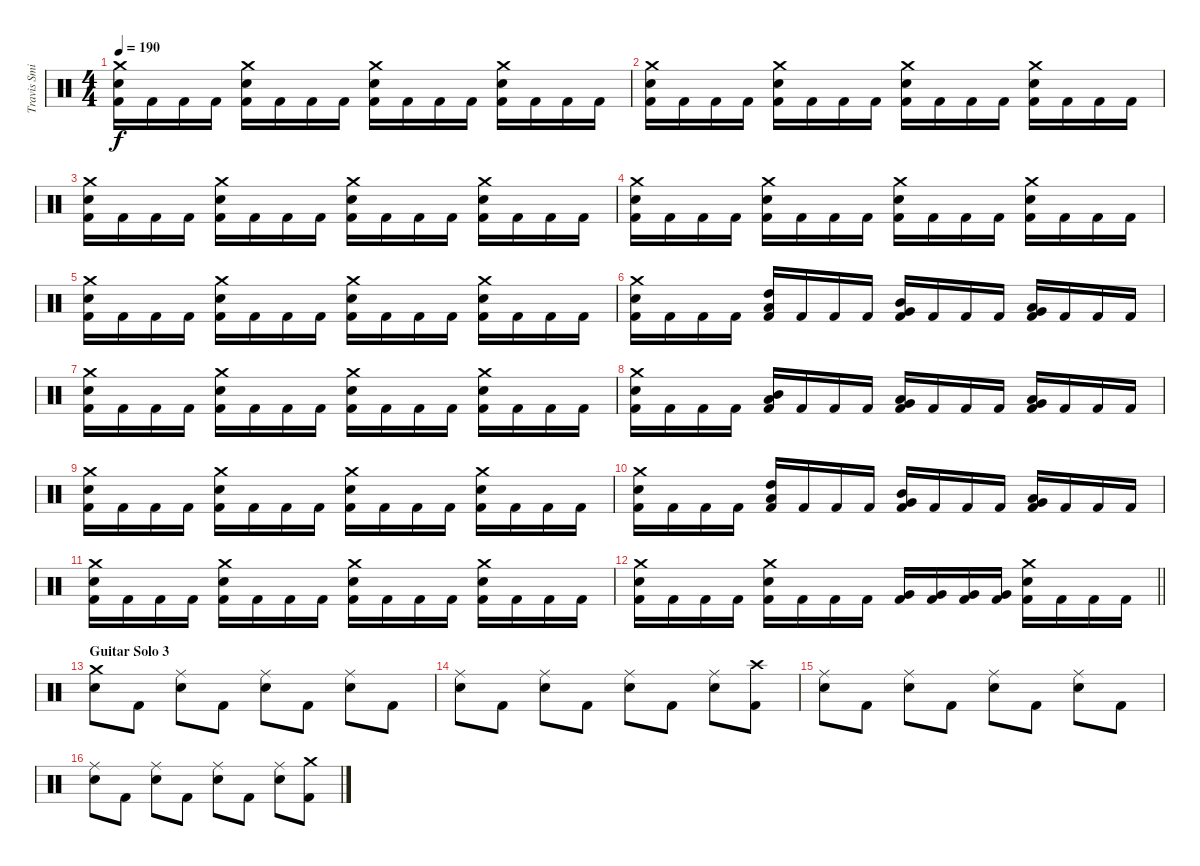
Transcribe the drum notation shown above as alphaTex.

\track ("Travis Smith" "Travis Smi") {instrument percussion}
\staff {score}
\articulation defaults
\ts (4 4)
\tempo 190
\clef neutral
\ks c
("Crash medium (hit)" "Electric Snare (hit)" "Kick (hit) 2").16{dy f} "Kick (hit) 2".16 "Kick (hit) 2".16 "Kick (hit) 2".16 ("Crash medium (hit)" "Electric Snare (hit)" "Kick (hit) 2").16 "Kick (hit) 2".16 "Kick (hit) 2".16 "Kick (hit) 2".16 ("Crash medium (hit)" "Electric Snare (hit)" "Kick (hit) 2").16 "Kick (hit) 2".16 "Kick (hit) 2".16 "Kick (hit) 2".16 ("Crash medium (hit)" "Electric Snare (hit)" "Kick (hit) 2").16 "Kick (hit) 2".16 "Kick (hit) 2".16 "Kick (hit) 2".16 |
("Crash medium (hit)" "Electric Snare (hit)" "Kick (hit) 2").16 "Kick (hit) 2".16 "Kick (hit) 2".16 "Kick (hit) 2".16 ("Crash medium (hit)" "Electric Snare (hit)" "Kick (hit) 2").16 "Kick (hit) 2".16 "Kick (hit) 2".16 "Kick (hit) 2".16 ("Crash medium (hit)" "Electric Snare (hit)" "Kick (hit) 2").16 "Kick (hit) 2".16 "Kick (hit) 2".16 "Kick (hit) 2".16 ("Crash medium (hit)" "Electric Snare (hit)" "Kick (hit) 2").16 "Kick (hit) 2".16 "Kick (hit) 2".16 "Kick (hit) 2".16 |
("Crash medium (hit)" "Electric Snare (hit)" "Kick (hit) 2").16 "Kick (hit) 2".16 "Kick (hit) 2".16 "Kick (hit) 2".16 ("Crash medium (hit)" "Electric Snare (hit)" "Kick (hit) 2").16 "Kick (hit) 2".16 "Kick (hit) 2".16 "Kick (hit) 2".16 ("Crash medium (hit)" "Electric Snare (hit)" "Kick (hit) 2").16 "Kick (hit) 2".16 "Kick (hit) 2".16 "Kick (hit) 2".16 ("Crash medium (hit)" "Electric Snare (hit)" "Kick (hit) 2").16 "Kick (hit) 2".16 "Kick (hit) 2".16 "Kick (hit) 2".16 |
("Crash medium (hit)" "Electric Snare (hit)" "Kick (hit) 2").16 "Kick (hit) 2".16 "Kick (hit) 2".16 "Kick (hit) 2".16 ("Crash medium (hit)" "Electric Snare (hit)" "Kick (hit) 2").16 "Kick (hit) 2".16 "Kick (hit) 2".16 "Kick (hit) 2".16 ("Crash medium (hit)" "Electric Snare (hit)" "Kick (hit) 2").16 "Kick (hit) 2".16 "Kick (hit) 2".16 "Kick (hit) 2".16 ("Crash medium (hit)" "Electric Snare (hit)" "Kick (hit) 2").16 "Kick (hit) 2".16 "Kick (hit) 2".16 "Kick (hit) 2".16 |
("Crash medium (hit)" "Electric Snare (hit)" "Kick (hit) 2").16 "Kick (hit) 2".16 "Kick (hit) 2".16 "Kick (hit) 2".16 ("Crash medium (hit)" "Electric Snare (hit)" "Kick (hit) 2").16 "Kick (hit) 2".16 "Kick (hit) 2".16 "Kick (hit) 2".16 ("Crash medium (hit)" "Electric Snare (hit)" "Kick (hit) 2").16 "Kick (hit) 2".16 "Kick (hit) 2".16 "Kick (hit) 2".16 ("Crash medium (hit)" "Electric Snare (hit)" "Kick (hit) 2").16 "Kick (hit) 2".16 "Kick (hit) 2".16 "Kick (hit) 2".16 |
("Crash medium (hit)" "Electric Snare (hit)" "Kick (hit) 2").16 "Kick (hit) 2".16 "Kick (hit) 2".16 "Kick (hit) 2".16 ("Low Tom (hit)" "High Tom (hit)" "Kick (hit) 2").16 "Kick (hit) 2".16 "Kick (hit) 2".16 "Kick (hit) 2".16 ("Very Low Tom (hit)" "Mid Tom (hit)" "Kick (hit) 2").16 "Kick (hit) 2".16 "Kick (hit) 2".16 "Kick (hit) 2".16 ("Very Low Tom (hit)" "Low Tom (hit)" "Kick (hit) 2").16 "Kick (hit) 2".16 "Kick (hit) 2".16 "Kick (hit) 2".16 |
("Crash medium (hit)" "Electric Snare (hit)" "Kick (hit) 2").16 "Kick (hit) 2".16 "Kick (hit) 2".16 "Kick (hit) 2".16 ("Crash medium (hit)" "Electric Snare (hit)" "Kick (hit) 2").16 "Kick (hit) 2".16 "Kick (hit) 2".16 "Kick (hit) 2".16 ("Crash medium (hit)" "Electric Snare (hit)" "Kick (hit) 2").16 "Kick (hit) 2".16 "Kick (hit) 2".16 "Kick (hit) 2".16 ("Crash medium (hit)" "Electric Snare (hit)" "Kick (hit) 2").16 "Kick (hit) 2".16 "Kick (hit) 2".16 "Kick (hit) 2".16 |
("Crash medium (hit)" "Electric Snare (hit)" "Kick (hit) 2").16 "Kick (hit) 2".16 "Kick (hit) 2".16 "Kick (hit) 2".16 ("Low Tom (hit)" "Mid Tom (hit)" "Kick (hit) 2").16 "Kick (hit) 2".16 "Kick (hit) 2".16 "Kick (hit) 2".16 ("Very Low Tom (hit)" "Low Tom (hit)" "Kick (hit) 2").16 "Kick (hit) 2".16 "Kick (hit) 2".16 "Kick (hit) 2".16 ("Very Low Tom (hit)" "Low Floor Tom (hit)" "Kick (hit) 2").16 "Kick (hit) 2".16 "Kick (hit) 2".16 "Kick (hit) 2".16 |
("Crash medium (hit)" "Electric Snare (hit)" "Kick (hit) 2").16 "Kick (hit) 2".16 "Kick (hit) 2".16 "Kick (hit) 2".16 ("Crash medium (hit)" "Electric Snare (hit)" "Kick (hit) 2").16 "Kick (hit) 2".16 "Kick (hit) 2".16 "Kick (hit) 2".16 ("Crash medium (hit)" "Electric Snare (hit)" "Kick (hit) 2").16 "Kick (hit) 2".16 "Kick (hit) 2".16 "Kick (hit) 2".16 ("Crash medium (hit)" "Electric Snare (hit)" "Kick (hit) 2").16 "Kick (hit) 2".16 "Kick (hit) 2".16 "Kick (hit) 2".16 |
("Crash medium (hit)" "Electric Snare (hit)" "Kick (hit) 2").16 "Kick (hit) 2".16 "Kick (hit) 2".16 "Kick (hit) 2".16 ("Low Tom (hit)" "High Tom (hit)" "Kick (hit) 2").16 "Kick (hit) 2".16 "Kick (hit) 2".16 "Kick (hit) 2".16 ("Very Low Tom (hit)" "Mid Tom (hit)" "Kick (hit) 2").16 "Kick (hit) 2".16 "Kick (hit) 2".16 "Kick (hit) 2".16 ("Very Low Tom (hit)" "Low Tom (hit)" "Kick (hit) 2").16 "Kick (hit) 2".16 "Kick (hit) 2".16 "Kick (hit) 2".16 |
("Crash medium (hit)" "Electric Snare (hit)" "Kick (hit) 2").16 "Kick (hit) 2".16 "Kick (hit) 2".16 "Kick (hit) 2".16 ("Crash medium (hit)" "Electric Snare (hit)" "Kick (hit) 2").16 "Kick (hit) 2".16 "Kick (hit) 2".16 "Kick (hit) 2".16 ("Crash medium (hit)" "Electric Snare (hit)" "Kick (hit) 2").16 "Kick (hit) 2".16 "Kick (hit) 2".16 "Kick (hit) 2".16 ("Crash medium (hit)" "Electric Snare (hit)" "Kick (hit) 2").16 "Kick (hit) 2".16 "Kick (hit) 2".16 "Kick (hit) 2".16 |
\barLineRight lightlight
("Crash medium (hit)" "Electric Snare (hit)" "Kick (hit) 2").16 "Kick (hit) 2".16 "Kick (hit) 2".16 "Kick (hit) 2".16 ("Crash medium (hit)" "Electric Snare (hit)" "Kick (hit) 2").16 "Kick (hit) 2".16 "Kick (hit) 2".16 "Kick (hit) 2".16 ("Very Low Tom (hit)" "Kick (hit) 2").16 ("Very Low Tom (hit)" "Kick (hit) 2").16 ("Very Low Tom (hit)" "Kick (hit) 2").16 ("Very Low Tom (hit)" "Kick (hit) 2").16 ("Crash medium (hit)" "Electric Snare (hit)" "Kick (hit) 2").16 "Kick (hit) 2".16 "Kick (hit) 2".16 "Kick (hit) 2".16 |
\section ("" "Guitar Solo 3")
("Crash medium (hit)" "Electric Snare (hit)").8 "Kick (hit) 2".8 ("Ride (middle)" "Electric Snare (hit)").8 "Kick (hit) 2".8 ("Ride (middle)" "Electric Snare (hit)").8 "Kick (hit) 2".8 ("Ride (middle)" "Electric Snare (hit)").8 "Kick (hit) 2".8 |
("Ride (middle)" "Electric Snare (hit)").8 "Kick (hit) 2".8 ("Ride (middle)" "Electric Snare (hit)").8 "Kick (hit) 2".8 ("Ride (middle)" "Electric Snare (hit)").8 "Kick (hit) 2".8 ("Ride (middle)" "Electric Snare (hit)").8 ("Crash high (hit)" "Kick (hit) 2").8 |
("Ride (middle)" "Electric Snare (hit)").8 "Kick (hit) 2".8 ("Ride (middle)" "Electric Snare (hit)").8 "Kick (hit) 2".8 ("Ride (middle)" "Electric Snare (hit)").8 "Kick (hit) 2".8 ("Ride (middle)" "Electric Snare (hit)").8 "Kick (hit) 2".8 |
("Ride (middle)" "Electric Snare (hit)").8 "Kick (hit) 2".8 ("Ride (middle)" "Electric Snare (hit)").8 "Kick (hit) 2".8 ("Ride (middle)" "Electric Snare (hit)").8 "Kick (hit) 2".8 ("Ride (middle)" "Electric Snare (hit)").8 ("Crash medium (hit)" "Kick (hit) 2").8
